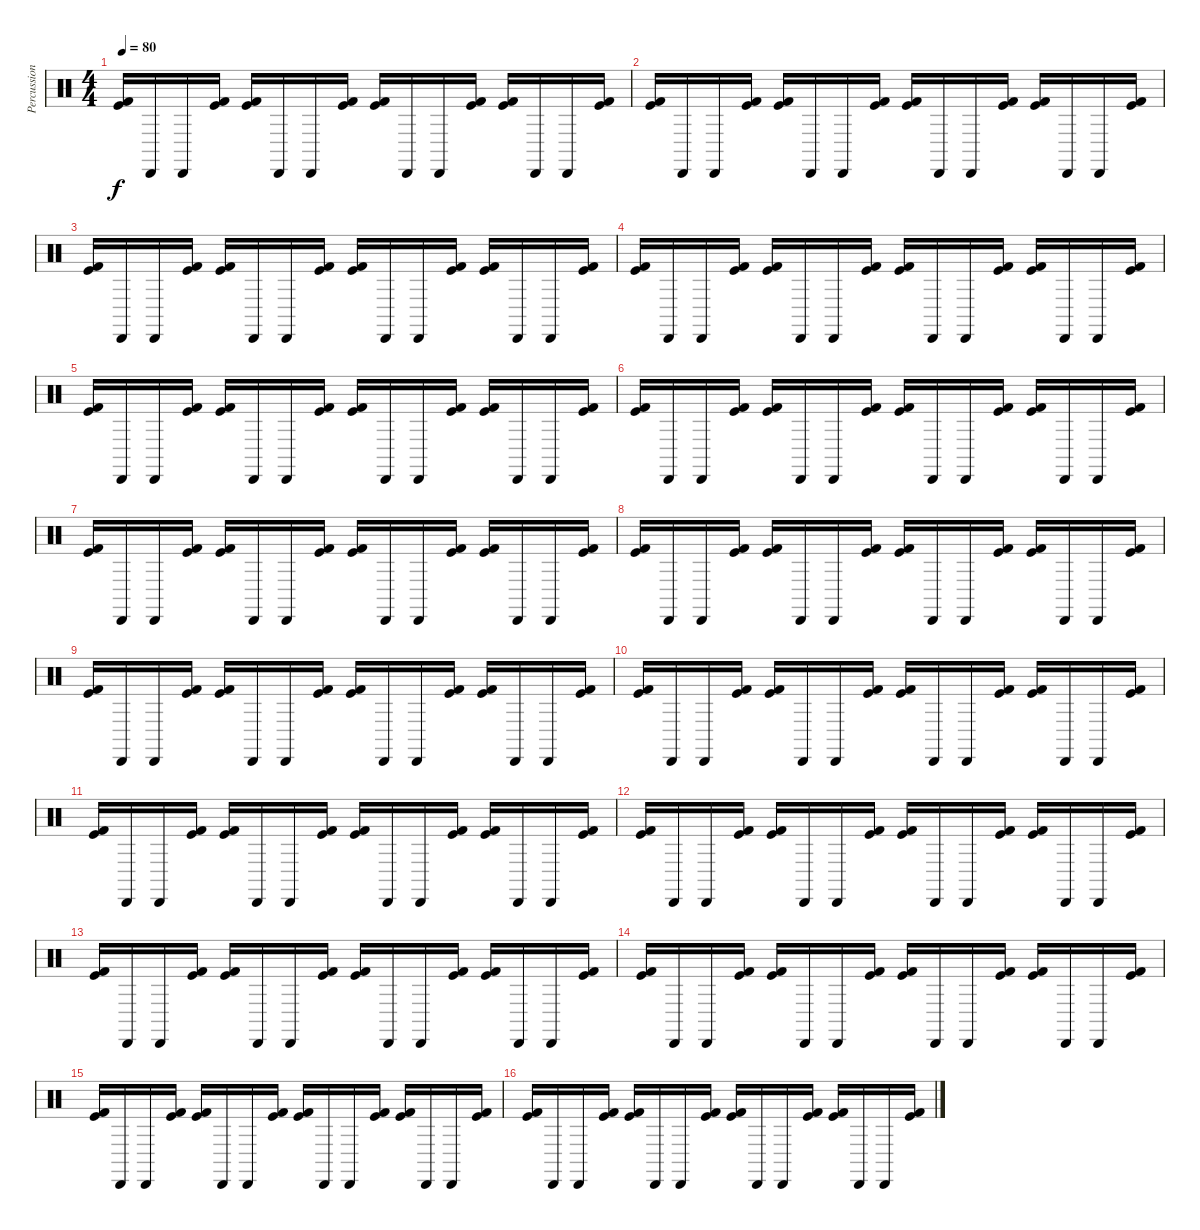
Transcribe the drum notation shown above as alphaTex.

\track ("Percussions" "Percussion") {instrument percussion}
\staff {score}
\articulation defaults
\ts (4 4)
\tempo 80
\clef neutral
\ks c
("Kick (hit) 2" "Kick (hit)").16{dy f} "Cabasa (hit)".16 "Cabasa (hit)".16 ("Kick (hit) 2" "Kick (hit)").16 ("Kick (hit) 2" "Kick (hit)").16 "Cabasa (hit)".16 "Cabasa (hit)".16 ("Kick (hit) 2" "Kick (hit)").16 ("Kick (hit) 2" "Kick (hit)").16 "Cabasa (hit)".16 "Cabasa (hit)".16 ("Kick (hit) 2" "Kick (hit)").16 ("Kick (hit) 2" "Kick (hit)").16 "Cabasa (hit)".16 "Cabasa (hit)".16 ("Kick (hit) 2" "Kick (hit)").16 |
("Kick (hit) 2" "Kick (hit)").16 "Cabasa (hit)".16 "Cabasa (hit)".16 ("Kick (hit) 2" "Kick (hit)").16 ("Kick (hit) 2" "Kick (hit)").16 "Cabasa (hit)".16 "Cabasa (hit)".16 ("Kick (hit) 2" "Kick (hit)").16 ("Kick (hit) 2" "Kick (hit)").16 "Cabasa (hit)".16 "Cabasa (hit)".16 ("Kick (hit) 2" "Kick (hit)").16 ("Kick (hit) 2" "Kick (hit)").16 "Cabasa (hit)".16 "Cabasa (hit)".16 ("Kick (hit) 2" "Kick (hit)").16 |
("Kick (hit) 2" "Kick (hit)").16 "Cabasa (hit)".16 "Cabasa (hit)".16 ("Kick (hit) 2" "Kick (hit)").16 ("Kick (hit) 2" "Kick (hit)").16 "Cabasa (hit)".16 "Cabasa (hit)".16 ("Kick (hit) 2" "Kick (hit)").16 ("Kick (hit) 2" "Kick (hit)").16 "Cabasa (hit)".16 "Cabasa (hit)".16 ("Kick (hit) 2" "Kick (hit)").16 ("Kick (hit) 2" "Kick (hit)").16 "Cabasa (hit)".16 "Cabasa (hit)".16 ("Kick (hit) 2" "Kick (hit)").16 |
("Kick (hit) 2" "Kick (hit)").16 "Cabasa (hit)".16 "Cabasa (hit)".16 ("Kick (hit) 2" "Kick (hit)").16 ("Kick (hit) 2" "Kick (hit)").16 "Cabasa (hit)".16 "Cabasa (hit)".16 ("Kick (hit) 2" "Kick (hit)").16 ("Kick (hit) 2" "Kick (hit)").16 "Cabasa (hit)".16 "Cabasa (hit)".16 ("Kick (hit) 2" "Kick (hit)").16 ("Kick (hit) 2" "Kick (hit)").16 "Cabasa (hit)".16 "Cabasa (hit)".16 ("Kick (hit) 2" "Kick (hit)").16 |
("Kick (hit) 2" "Kick (hit)").16 "Cabasa (hit)".16 "Cabasa (hit)".16 ("Kick (hit) 2" "Kick (hit)").16 ("Kick (hit) 2" "Kick (hit)").16 "Cabasa (hit)".16 "Cabasa (hit)".16 ("Kick (hit) 2" "Kick (hit)").16 ("Kick (hit) 2" "Kick (hit)").16 "Cabasa (hit)".16 "Cabasa (hit)".16 ("Kick (hit) 2" "Kick (hit)").16 ("Kick (hit) 2" "Kick (hit)").16 "Cabasa (hit)".16 "Cabasa (hit)".16 ("Kick (hit) 2" "Kick (hit)").16 |
("Kick (hit) 2" "Kick (hit)").16 "Cabasa (hit)".16 "Cabasa (hit)".16 ("Kick (hit) 2" "Kick (hit)").16 ("Kick (hit) 2" "Kick (hit)").16 "Cabasa (hit)".16 "Cabasa (hit)".16 ("Kick (hit) 2" "Kick (hit)").16 ("Kick (hit) 2" "Kick (hit)").16 "Cabasa (hit)".16 "Cabasa (hit)".16 ("Kick (hit) 2" "Kick (hit)").16 ("Kick (hit) 2" "Kick (hit)").16 "Cabasa (hit)".16 "Cabasa (hit)".16 ("Kick (hit) 2" "Kick (hit)").16 |
("Kick (hit) 2" "Kick (hit)").16 "Cabasa (hit)".16 "Cabasa (hit)".16 ("Kick (hit) 2" "Kick (hit)").16 ("Kick (hit) 2" "Kick (hit)").16 "Cabasa (hit)".16 "Cabasa (hit)".16 ("Kick (hit) 2" "Kick (hit)").16 ("Kick (hit) 2" "Kick (hit)").16 "Cabasa (hit)".16 "Cabasa (hit)".16 ("Kick (hit) 2" "Kick (hit)").16 ("Kick (hit) 2" "Kick (hit)").16 "Cabasa (hit)".16 "Cabasa (hit)".16 ("Kick (hit) 2" "Kick (hit)").16 |
("Kick (hit) 2" "Kick (hit)").16 "Cabasa (hit)".16 "Cabasa (hit)".16 ("Kick (hit) 2" "Kick (hit)").16 ("Kick (hit) 2" "Kick (hit)").16 "Cabasa (hit)".16 "Cabasa (hit)".16 ("Kick (hit) 2" "Kick (hit)").16 ("Kick (hit) 2" "Kick (hit)").16 "Cabasa (hit)".16 "Cabasa (hit)".16 ("Kick (hit) 2" "Kick (hit)").16 ("Kick (hit) 2" "Kick (hit)").16 "Cabasa (hit)".16 "Cabasa (hit)".16 ("Kick (hit) 2" "Kick (hit)").16 |
("Kick (hit) 2" "Kick (hit)").16 "Cabasa (hit)".16 "Cabasa (hit)".16 ("Kick (hit) 2" "Kick (hit)").16 ("Kick (hit) 2" "Kick (hit)").16 "Cabasa (hit)".16 "Cabasa (hit)".16 ("Kick (hit) 2" "Kick (hit)").16 ("Kick (hit) 2" "Kick (hit)").16 "Cabasa (hit)".16 "Cabasa (hit)".16 ("Kick (hit) 2" "Kick (hit)").16 ("Kick (hit) 2" "Kick (hit)").16 "Cabasa (hit)".16 "Cabasa (hit)".16 ("Kick (hit) 2" "Kick (hit)").16 |
("Kick (hit) 2" "Kick (hit)").16 "Cabasa (hit)".16 "Cabasa (hit)".16 ("Kick (hit) 2" "Kick (hit)").16 ("Kick (hit) 2" "Kick (hit)").16 "Cabasa (hit)".16 "Cabasa (hit)".16 ("Kick (hit) 2" "Kick (hit)").16 ("Kick (hit) 2" "Kick (hit)").16 "Cabasa (hit)".16 "Cabasa (hit)".16 ("Kick (hit) 2" "Kick (hit)").16 ("Kick (hit) 2" "Kick (hit)").16 "Cabasa (hit)".16 "Cabasa (hit)".16 ("Kick (hit) 2" "Kick (hit)").16 |
("Kick (hit) 2" "Kick (hit)").16 "Cabasa (hit)".16 "Cabasa (hit)".16 ("Kick (hit) 2" "Kick (hit)").16 ("Kick (hit) 2" "Kick (hit)").16 "Cabasa (hit)".16 "Cabasa (hit)".16 ("Kick (hit) 2" "Kick (hit)").16 ("Kick (hit) 2" "Kick (hit)").16 "Cabasa (hit)".16 "Cabasa (hit)".16 ("Kick (hit) 2" "Kick (hit)").16 ("Kick (hit) 2" "Kick (hit)").16 "Cabasa (hit)".16 "Cabasa (hit)".16 ("Kick (hit) 2" "Kick (hit)").16 |
("Kick (hit) 2" "Kick (hit)").16 "Cabasa (hit)".16 "Cabasa (hit)".16 ("Kick (hit) 2" "Kick (hit)").16 ("Kick (hit) 2" "Kick (hit)").16 "Cabasa (hit)".16 "Cabasa (hit)".16 ("Kick (hit) 2" "Kick (hit)").16 ("Kick (hit) 2" "Kick (hit)").16 "Cabasa (hit)".16 "Cabasa (hit)".16 ("Kick (hit) 2" "Kick (hit)").16 ("Kick (hit) 2" "Kick (hit)").16 "Cabasa (hit)".16 "Cabasa (hit)".16 ("Kick (hit) 2" "Kick (hit)").16 |
("Kick (hit) 2" "Kick (hit)").16 "Cabasa (hit)".16 "Cabasa (hit)".16 ("Kick (hit) 2" "Kick (hit)").16 ("Kick (hit) 2" "Kick (hit)").16 "Cabasa (hit)".16 "Cabasa (hit)".16 ("Kick (hit) 2" "Kick (hit)").16 ("Kick (hit) 2" "Kick (hit)").16 "Cabasa (hit)".16 "Cabasa (hit)".16 ("Kick (hit) 2" "Kick (hit)").16 ("Kick (hit) 2" "Kick (hit)").16 "Cabasa (hit)".16 "Cabasa (hit)".16 ("Kick (hit) 2" "Kick (hit)").16 |
("Kick (hit) 2" "Kick (hit)").16 "Cabasa (hit)".16 "Cabasa (hit)".16 ("Kick (hit) 2" "Kick (hit)").16 ("Kick (hit) 2" "Kick (hit)").16 "Cabasa (hit)".16 "Cabasa (hit)".16 ("Kick (hit) 2" "Kick (hit)").16 ("Kick (hit) 2" "Kick (hit)").16 "Cabasa (hit)".16 "Cabasa (hit)".16 ("Kick (hit) 2" "Kick (hit)").16 ("Kick (hit) 2" "Kick (hit)").16 "Cabasa (hit)".16 "Cabasa (hit)".16 ("Kick (hit) 2" "Kick (hit)").16 |
("Kick (hit) 2" "Kick (hit)").16 "Cabasa (hit)".16 "Cabasa (hit)".16 ("Kick (hit) 2" "Kick (hit)").16 ("Kick (hit) 2" "Kick (hit)").16 "Cabasa (hit)".16 "Cabasa (hit)".16 ("Kick (hit) 2" "Kick (hit)").16 ("Kick (hit) 2" "Kick (hit)").16 "Cabasa (hit)".16 "Cabasa (hit)".16 ("Kick (hit) 2" "Kick (hit)").16 ("Kick (hit) 2" "Kick (hit)").16 "Cabasa (hit)".16 "Cabasa (hit)".16 ("Kick (hit) 2" "Kick (hit)").16 |
("Kick (hit) 2" "Kick (hit)").16 "Cabasa (hit)".16 "Cabasa (hit)".16 ("Kick (hit) 2" "Kick (hit)").16 ("Kick (hit) 2" "Kick (hit)").16 "Cabasa (hit)".16 "Cabasa (hit)".16 ("Kick (hit) 2" "Kick (hit)").16 ("Kick (hit) 2" "Kick (hit)").16 "Cabasa (hit)".16 "Cabasa (hit)".16 ("Kick (hit) 2" "Kick (hit)").16 ("Kick (hit) 2" "Kick (hit)").16 "Cabasa (hit)".16 "Cabasa (hit)".16 ("Kick (hit) 2" "Kick (hit)").16
